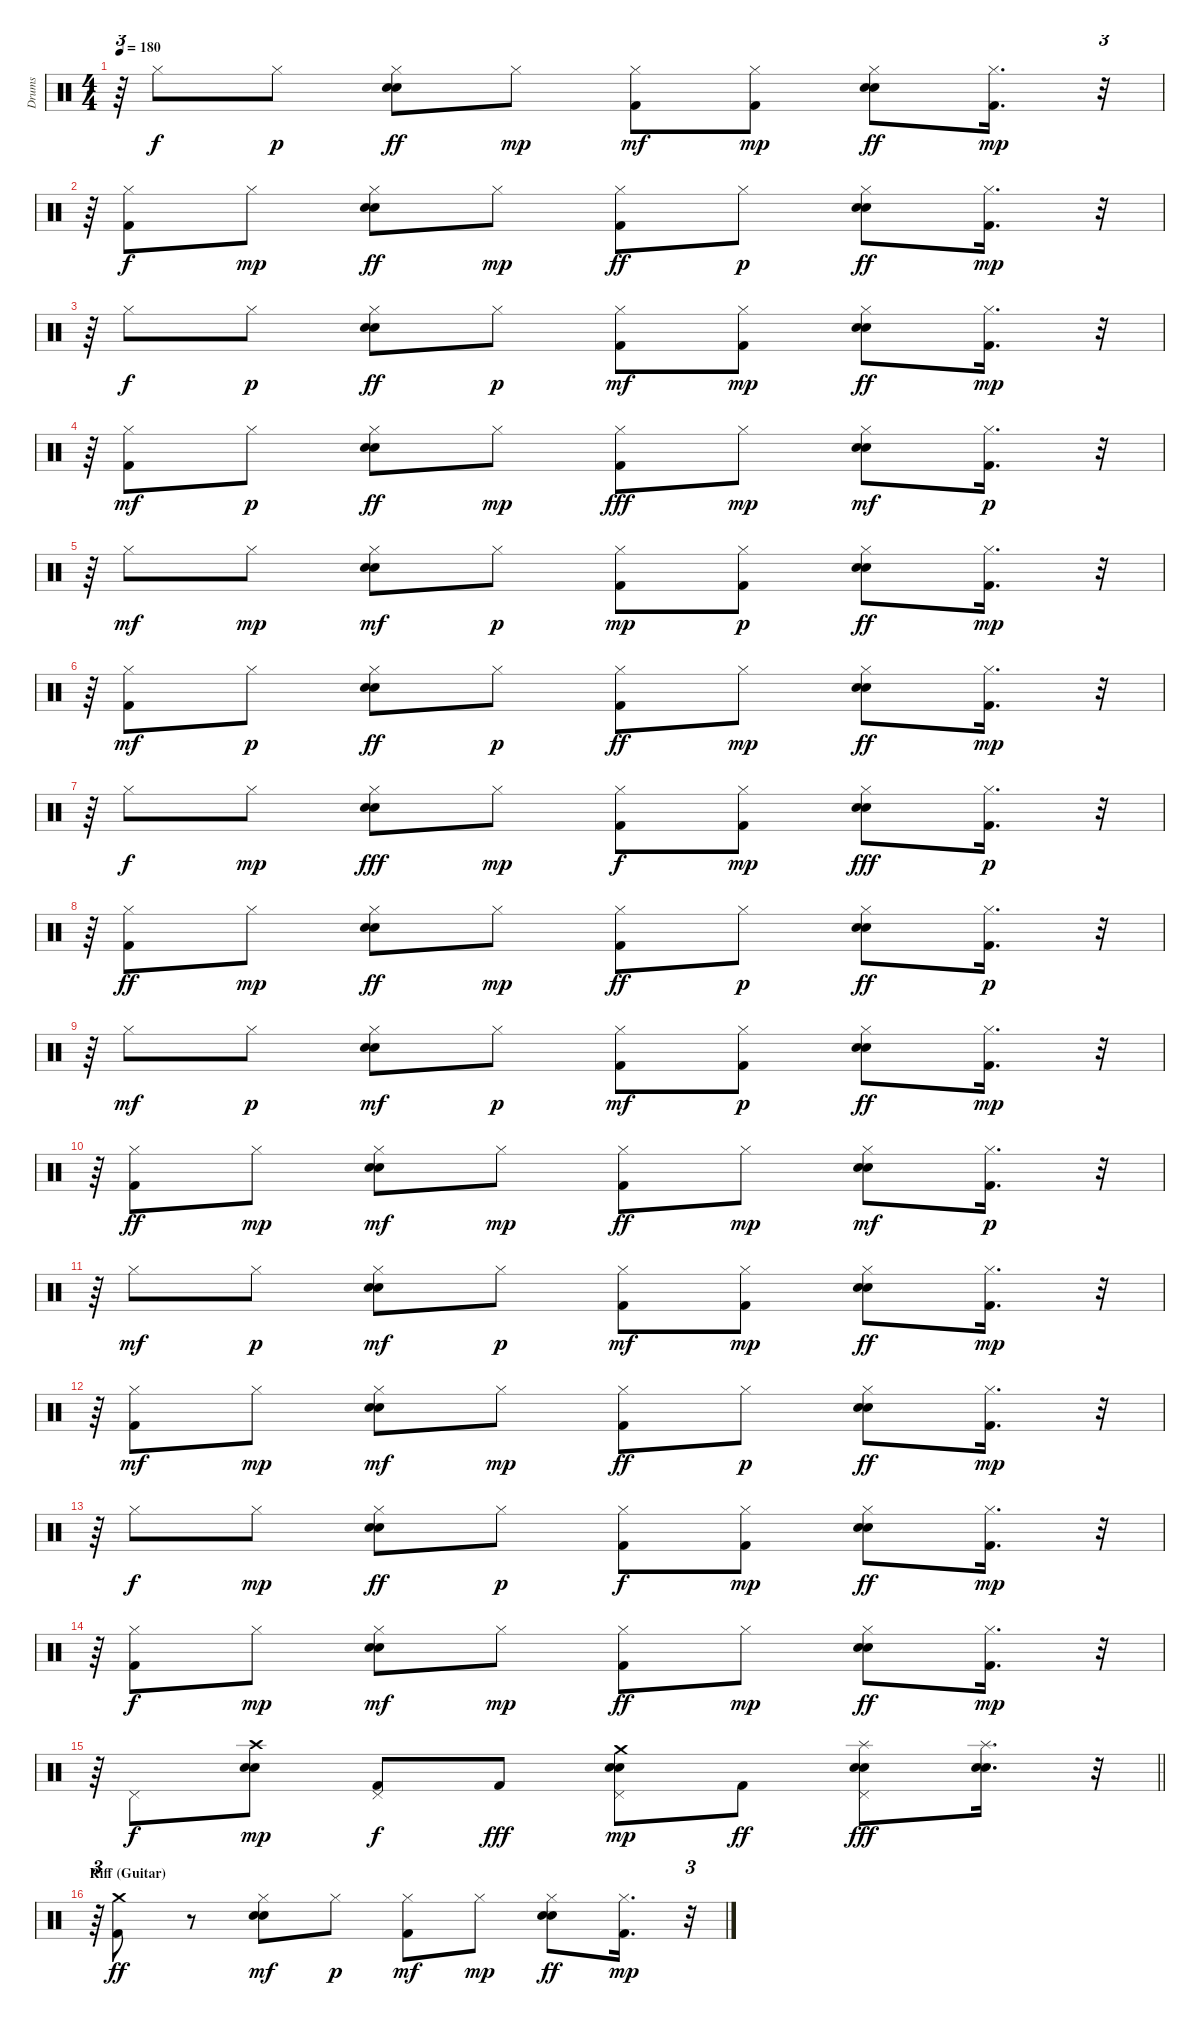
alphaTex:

\track ("Drums" "Drums") {instrument percussion}
\staff {score}
\articulation defaults
\ts (4 4)
\tempo 180
\clef neutral
\ks c
r.64{tu (3 2) dy mp} "Hi-Hat (closed)".8{dy f} "Hi-Hat (closed)".8{dy p} ("Electric Snare (hit)" "Snare (hit) 2" "Hi-Hat (closed)").8{dy ff} "Hi-Hat (closed)".8{dy mp} ("Kick (hit) 2" "Hi-Hat (closed)").8{dy mf} ("Kick (hit) 2" "Hi-Hat (closed)").8{dy mp} ("Electric Snare (hit)" "Snare (hit) 2" "Hi-Hat (closed)").8{dy ff} ("Kick (hit) 2" "Hi-Hat (closed)").16{d dy mp} r.32{tu (3 2)} |
r.64{tu (3 2)} ("Kick (hit) 2" "Hi-Hat (closed)").8{dy f} "Hi-Hat (closed)".8{dy mp} ("Electric Snare (hit)" "Snare (hit) 2" "Hi-Hat (closed)").8{dy ff} "Hi-Hat (closed)".8{dy mp} ("Kick (hit) 2" "Hi-Hat (closed)").8{dy ff} "Hi-Hat (closed)".8{dy p} ("Electric Snare (hit)" "Snare (hit) 2" "Hi-Hat (closed)").8{dy ff} ("Kick (hit) 2" "Hi-Hat (closed)").16{d dy mp} r.32{tu (3 2)} |
r.64{tu (3 2)} "Hi-Hat (closed)".8{dy f} "Hi-Hat (closed)".8{dy p} ("Electric Snare (hit)" "Snare (hit) 2" "Hi-Hat (closed)").8{dy ff} "Hi-Hat (closed)".8{dy p} ("Kick (hit) 2" "Hi-Hat (closed)").8{dy mf} ("Kick (hit) 2" "Hi-Hat (closed)").8{dy mp} ("Electric Snare (hit)" "Snare (hit) 2" "Hi-Hat (closed)").8{dy ff} ("Kick (hit) 2" "Hi-Hat (closed)").16{d dy mp} r.32{tu (3 2)} |
r.64{tu (3 2)} ("Kick (hit) 2" "Hi-Hat (closed)").8{dy mf} "Hi-Hat (closed)".8{dy p} ("Electric Snare (hit)" "Snare (hit) 2" "Hi-Hat (closed)").8{dy ff} "Hi-Hat (closed)".8{dy mp} ("Kick (hit) 2" "Hi-Hat (closed)").8{dy fff} "Hi-Hat (closed)".8{dy mp} ("Electric Snare (hit)" "Snare (hit) 2" "Hi-Hat (closed)").8{dy mf} ("Kick (hit) 2" "Hi-Hat (closed)").16{d dy p} r.32{tu (3 2)} |
r.64{tu (3 2)} "Hi-Hat (closed)".8{dy mf} "Hi-Hat (closed)".8{dy mp} ("Electric Snare (hit)" "Snare (hit) 2" "Hi-Hat (closed)").8{dy mf} "Hi-Hat (closed)".8{dy p} ("Kick (hit) 2" "Hi-Hat (closed)").8{dy mp} ("Kick (hit) 2" "Hi-Hat (closed)").8{dy p} ("Electric Snare (hit)" "Snare (hit) 2" "Hi-Hat (closed)").8{dy ff} ("Kick (hit) 2" "Hi-Hat (closed)").16{d dy mp} r.32{tu (3 2)} |
r.64{tu (3 2)} ("Kick (hit) 2" "Hi-Hat (closed)").8{dy mf} "Hi-Hat (closed)".8{dy p} ("Electric Snare (hit)" "Snare (hit) 2" "Hi-Hat (closed)").8{dy ff} "Hi-Hat (closed)".8{dy p} ("Kick (hit) 2" "Hi-Hat (closed)").8{dy ff} "Hi-Hat (closed)".8{dy mp} ("Electric Snare (hit)" "Snare (hit) 2" "Hi-Hat (closed)").8{dy ff} ("Kick (hit) 2" "Hi-Hat (closed)").16{d dy mp} r.32{tu (3 2)} |
r.64{tu (3 2)} "Hi-Hat (closed)".8{dy f} "Hi-Hat (closed)".8{dy mp} ("Electric Snare (hit)" "Snare (hit) 2" "Hi-Hat (closed)").8{dy fff} "Hi-Hat (closed)".8{dy mp} ("Kick (hit) 2" "Hi-Hat (closed)").8{dy f} ("Kick (hit) 2" "Hi-Hat (closed)").8{dy mp} ("Electric Snare (hit)" "Snare (hit) 2" "Hi-Hat (closed)").8{dy fff} ("Kick (hit) 2" "Hi-Hat (closed)").16{d dy p} r.32{tu (3 2)} |
r.64{tu (3 2)} ("Kick (hit) 2" "Hi-Hat (closed)").8{dy ff} "Hi-Hat (closed)".8{dy mp} ("Electric Snare (hit)" "Snare (hit) 2" "Hi-Hat (closed)").8{dy ff} "Hi-Hat (closed)".8{dy mp} ("Kick (hit) 2" "Hi-Hat (closed)").8{dy ff} "Hi-Hat (closed)".8{dy p} ("Electric Snare (hit)" "Snare (hit) 2" "Hi-Hat (closed)").8{dy ff} ("Kick (hit) 2" "Hi-Hat (closed)").16{d dy p} r.32{tu (3 2)} |
r.64{tu (3 2)} "Hi-Hat (closed)".8{dy mf} "Hi-Hat (closed)".8{dy p} ("Electric Snare (hit)" "Snare (hit) 2" "Hi-Hat (closed)").8{dy mf} "Hi-Hat (closed)".8{dy p} ("Kick (hit) 2" "Hi-Hat (closed)").8{dy mf} ("Kick (hit) 2" "Hi-Hat (closed)").8{dy p} ("Electric Snare (hit)" "Snare (hit) 2" "Hi-Hat (closed)").8{dy ff} ("Kick (hit) 2" "Hi-Hat (closed)").16{d dy mp} r.32{tu (3 2)} |
r.64{tu (3 2)} ("Kick (hit) 2" "Hi-Hat (closed)").8{dy ff} "Hi-Hat (closed)".8{dy mp} ("Electric Snare (hit)" "Snare (hit) 2" "Hi-Hat (closed)").8{dy mf} "Hi-Hat (closed)".8{dy mp} ("Kick (hit) 2" "Hi-Hat (closed)").8{dy ff} "Hi-Hat (closed)".8{dy mp} ("Electric Snare (hit)" "Snare (hit) 2" "Hi-Hat (closed)").8{dy mf} ("Kick (hit) 2" "Hi-Hat (closed)").16{d dy p} r.32{tu (3 2)} |
r.64{tu (3 2)} "Hi-Hat (closed)".8{dy mf} "Hi-Hat (closed)".8{dy p} ("Electric Snare (hit)" "Snare (hit) 2" "Hi-Hat (closed)").8{dy mf} "Hi-Hat (closed)".8{dy p} ("Kick (hit) 2" "Hi-Hat (closed)").8{dy mf} ("Kick (hit) 2" "Hi-Hat (closed)").8{dy mp} ("Electric Snare (hit)" "Snare (hit) 2" "Hi-Hat (closed)").8{dy ff} ("Kick (hit) 2" "Hi-Hat (closed)").16{d dy mp} r.32{tu (3 2)} |
r.64{tu (3 2)} ("Kick (hit) 2" "Hi-Hat (closed)").8{dy mf} "Hi-Hat (closed)".8{dy mp} ("Electric Snare (hit)" "Snare (hit) 2" "Hi-Hat (closed)").8{dy mf} "Hi-Hat (closed)".8{dy mp} ("Kick (hit) 2" "Hi-Hat (closed)").8{dy ff} "Hi-Hat (closed)".8{dy p} ("Electric Snare (hit)" "Snare (hit) 2" "Hi-Hat (closed)").8{dy ff} ("Kick (hit) 2" "Hi-Hat (closed)").16{d dy mp} r.32{tu (3 2)} |
r.64{tu (3 2)} "Hi-Hat (closed)".8{dy f} "Hi-Hat (closed)".8{dy mp} ("Electric Snare (hit)" "Snare (hit) 2" "Hi-Hat (closed)").8{dy ff} "Hi-Hat (closed)".8{dy p} ("Kick (hit) 2" "Hi-Hat (closed)").8{dy f} ("Kick (hit) 2" "Hi-Hat (closed)").8{dy mp} ("Electric Snare (hit)" "Snare (hit) 2" "Hi-Hat (closed)").8{dy ff} ("Kick (hit) 2" "Hi-Hat (closed)").16{d dy mp} r.32{tu (3 2)} |
r.64{tu (3 2)} ("Kick (hit) 2" "Hi-Hat (closed)").8{dy f} "Hi-Hat (closed)".8{dy mp} ("Electric Snare (hit)" "Snare (hit) 2" "Hi-Hat (closed)").8{dy mf} "Hi-Hat (closed)".8{dy mp} ("Kick (hit) 2" "Hi-Hat (closed)").8{dy ff} "Hi-Hat (closed)".8{dy mp} ("Electric Snare (hit)" "Snare (hit) 2" "Hi-Hat (closed)").8{dy ff} ("Kick (hit) 2" "Hi-Hat (closed)").16{d dy mp} r.32{tu (3 2)} |
\barLineRight lightlight
r.64{tu (3 2)} "Pedal Hi-Hat (hit)".8{dy f} ("Electric Snare (hit)" "Snare (hit) 2" "Crash high (hit)").8{dy mp} ("Kick (hit) 2" "Pedal Hi-Hat (hit)").8{dy f} "Kick (hit) 2".8{dy fff} ("Electric Snare (hit)" "Snare (hit) 2" "Pedal Hi-Hat (hit)" "Crash medium (hit)").8{dy mp} "Kick (hit) 2".8{dy ff} ("Electric Snare (hit)" "Snare (hit) 2" "Pedal Hi-Hat (hit)" "Splash (hit)").8{dy fff} ("Electric Snare (hit)" "Snare (hit) 2" "Splash (hit)").16{d} r.32{tu (3 2)} |
\section ("" "Riff (Guitar)")
r.64{tu (3 2)} ("Kick (hit) 2" "Crash medium (hit)").8{dy ff} r.8 ("Electric Snare (hit)" "Snare (hit) 2" "Hi-Hat (closed)").8{dy mf} "Hi-Hat (closed)".8{dy p} ("Kick (hit) 2" "Hi-Hat (closed)").8{dy mf} "Hi-Hat (closed)".8{dy mp} ("Electric Snare (hit)" "Snare (hit) 2" "Hi-Hat (closed)").8{dy ff} ("Kick (hit) 2" "Hi-Hat (closed)").16{d dy mp} r.32{tu (3 2)}
